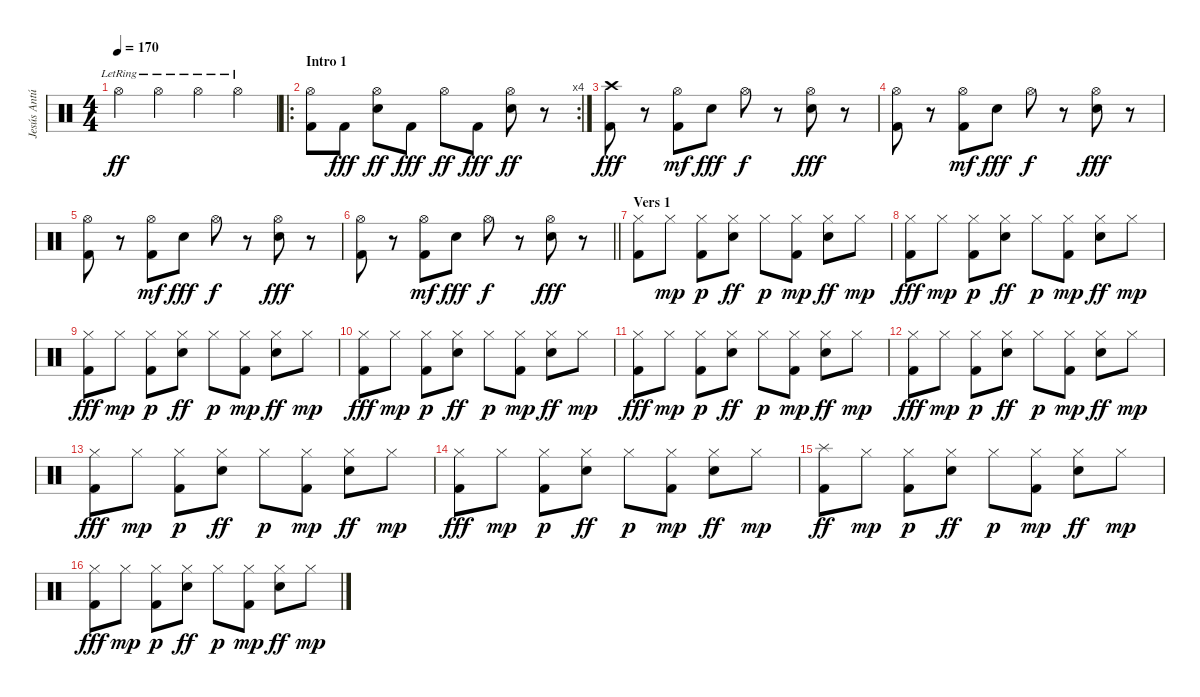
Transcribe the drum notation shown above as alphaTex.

\track ("Jesús Antúnez (Bateria)" "Jesús Antú") {instrument percussion}
\staff {score}
\articulation defaults
\ts (4 4)
\tempo 170
\clef neutral
\ks c "Hi-Hat (open)"{lr}.4{dy ff} "Hi-Hat (open)"{lr}.4 "Hi-Hat (open)"{lr}.4 "Hi-Hat (open)"{lr}.4
|
\ro
\rc 4
\section ("" "Intro 1")
("Kick (hit) 2" "Hi-Hat (open)").8 "Kick (hit) 2".8{dy fff} ("Electric Snare (hit)" "Hi-Hat (open)").8{dy ff} "Kick (hit) 2".8{dy fff} "Hi-Hat (open)".8{dy ff} "Kick (hit) 2".8{dy fff} ("Electric Snare (hit)" "Hi-Hat (open)").8{dy ff} r.8 |
("Crash high (hit)" "Kick (hit) 2").8{dy fff} r.8 ("Kick (hit) 2" "Hi-Hat (open)").8{dy mf} "Electric Snare (hit)".8{dy fff} "Hi-Hat (open)".8{dy f} r.8 ("Electric Snare (hit)" "Hi-Hat (open)").8{dy fff} r.8 |
("Hi-Hat (open)" "Kick (hit) 2").8 r.8 ("Kick (hit) 2" "Hi-Hat (open)").8{dy mf} "Electric Snare (hit)".8{dy fff} "Hi-Hat (open)".8{dy f} r.8 ("Electric Snare (hit)" "Hi-Hat (open)").8{dy fff} r.8 |
("Hi-Hat (open)" "Kick (hit) 2").8 r.8 ("Kick (hit) 2" "Hi-Hat (open)").8{dy mf} "Electric Snare (hit)".8{dy fff} "Hi-Hat (open)".8{dy f} r.8 ("Electric Snare (hit)" "Hi-Hat (open)").8{dy fff} r.8 |
\barLineRight lightlight
("Hi-Hat (open)" "Kick (hit) 2").8 r.8 ("Kick (hit) 2" "Hi-Hat (open)").8{dy mf} "Electric Snare (hit)".8{dy fff} "Hi-Hat (open)".8{dy f} r.8 ("Electric Snare (hit)" "Hi-Hat (open)").8{dy fff} r.8 |
\section ("" "Vers 1")
("Kick (hit) 2" "Hi-Hat (closed)").8 "Hi-Hat (closed)".8{dy mp} ("Kick (hit) 2" "Hi-Hat (closed)").8{dy p} ("Hi-Hat (closed)" "Electric Snare (hit)").8{dy ff} "Hi-Hat (closed)".8{dy p} ("Kick (hit) 2" "Hi-Hat (closed)").8{dy mp} ("Hi-Hat (closed)" "Electric Snare (hit)").8{dy ff} "Hi-Hat (closed)".8{dy mp} |
("Kick (hit) 2" "Hi-Hat (closed)").8{dy fff} "Hi-Hat (closed)".8{dy mp} ("Kick (hit) 2" "Hi-Hat (closed)").8{dy p} ("Hi-Hat (closed)" "Electric Snare (hit)").8{dy ff} "Hi-Hat (closed)".8{dy p} ("Kick (hit) 2" "Hi-Hat (closed)").8{dy mp} ("Hi-Hat (closed)" "Electric Snare (hit)").8{dy ff} "Hi-Hat (closed)".8{dy mp} |
("Kick (hit) 2" "Hi-Hat (closed)").8{dy fff} "Hi-Hat (closed)".8{dy mp} ("Kick (hit) 2" "Hi-Hat (closed)").8{dy p} ("Hi-Hat (closed)" "Electric Snare (hit)").8{dy ff} "Hi-Hat (closed)".8{dy p} ("Kick (hit) 2" "Hi-Hat (closed)").8{dy mp} ("Hi-Hat (closed)" "Electric Snare (hit)").8{dy ff} "Hi-Hat (closed)".8{dy mp} |
("Kick (hit) 2" "Hi-Hat (closed)").8{dy fff} "Hi-Hat (closed)".8{dy mp} ("Kick (hit) 2" "Hi-Hat (closed)").8{dy p} ("Hi-Hat (closed)" "Electric Snare (hit)").8{dy ff} "Hi-Hat (closed)".8{dy p} ("Kick (hit) 2" "Hi-Hat (closed)").8{dy mp} ("Hi-Hat (closed)" "Electric Snare (hit)").8{dy ff} "Hi-Hat (closed)".8{dy mp} |
("Kick (hit) 2" "Hi-Hat (closed)").8{dy fff} "Hi-Hat (closed)".8{dy mp} ("Kick (hit) 2" "Hi-Hat (closed)").8{dy p} ("Hi-Hat (closed)" "Electric Snare (hit)").8{dy ff} "Hi-Hat (closed)".8{dy p} ("Kick (hit) 2" "Hi-Hat (closed)").8{dy mp} ("Hi-Hat (closed)" "Electric Snare (hit)").8{dy ff} "Hi-Hat (closed)".8{dy mp} |
("Kick (hit) 2" "Hi-Hat (closed)").8{dy fff} "Hi-Hat (closed)".8{dy mp} ("Kick (hit) 2" "Hi-Hat (closed)").8{dy p} ("Hi-Hat (closed)" "Electric Snare (hit)").8{dy ff} "Hi-Hat (closed)".8{dy p} ("Kick (hit) 2" "Hi-Hat (closed)").8{dy mp} ("Hi-Hat (closed)" "Electric Snare (hit)").8{dy ff} "Hi-Hat (closed)".8{dy mp} |
("Kick (hit) 2" "Hi-Hat (closed)").8{dy fff} "Hi-Hat (closed)".8{dy mp} ("Kick (hit) 2" "Hi-Hat (closed)").8{dy p} ("Hi-Hat (closed)" "Electric Snare (hit)").8{dy ff} "Hi-Hat (closed)".8{dy p} ("Kick (hit) 2" "Hi-Hat (closed)").8{dy mp} ("Hi-Hat (closed)" "Electric Snare (hit)").8{dy ff} "Hi-Hat (closed)".8{dy mp} |
("Kick (hit) 2" "Hi-Hat (closed)").8{dy fff} "Hi-Hat (closed)".8{dy mp} ("Kick (hit) 2" "Hi-Hat (closed)").8{dy p} ("Hi-Hat (closed)" "Electric Snare (hit)").8{dy ff} "Hi-Hat (closed)".8{dy p} ("Kick (hit) 2" "Hi-Hat (closed)").8{dy mp} ("Hi-Hat (closed)" "Electric Snare (hit)").8{dy ff} "Hi-Hat (closed)".8{dy mp} |
("Splash (hit)" "Kick (hit) 2").8{dy ff} "Hi-Hat (closed)".8{dy mp} ("Kick (hit) 2" "Hi-Hat (closed)").8{dy p} ("Hi-Hat (closed)" "Electric Snare (hit)").8{dy ff} "Hi-Hat (closed)".8{dy p} ("Kick (hit) 2" "Hi-Hat (closed)").8{dy mp} ("Hi-Hat (closed)" "Electric Snare (hit)").8{dy ff} "Hi-Hat (closed)".8{dy mp} |
("Kick (hit) 2" "Hi-Hat (closed)").8{dy fff} "Hi-Hat (closed)".8{dy mp} ("Kick (hit) 2" "Hi-Hat (closed)").8{dy p} ("Hi-Hat (closed)" "Electric Snare (hit)").8{dy ff} "Hi-Hat (closed)".8{dy p} ("Kick (hit) 2" "Hi-Hat (closed)").8{dy mp} ("Hi-Hat (closed)" "Electric Snare (hit)").8{dy ff} "Hi-Hat (closed)".8{dy mp}
